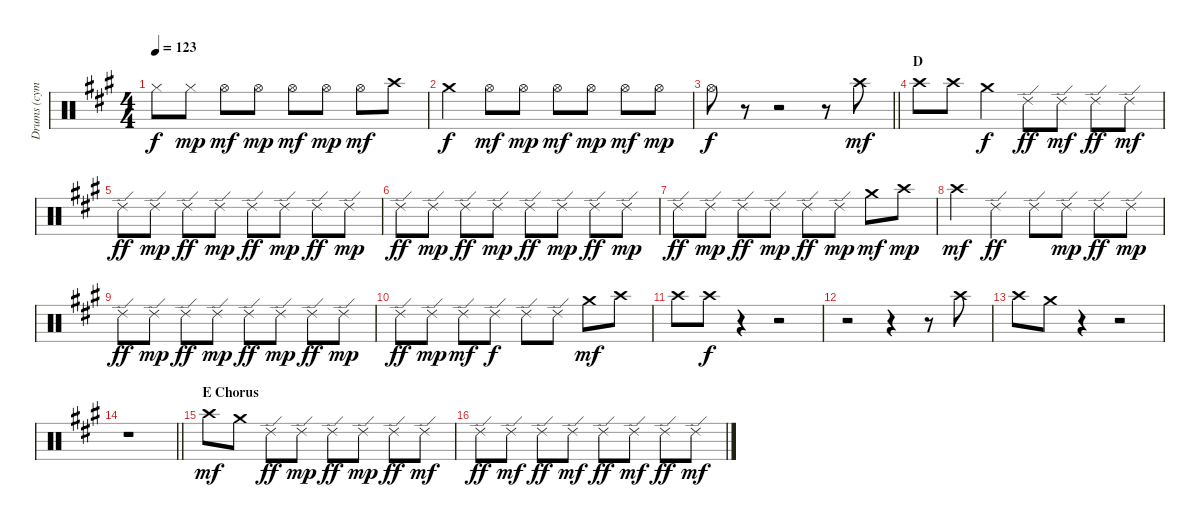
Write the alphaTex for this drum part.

\track ("Drums (cymbals)" "Drums (cym") {instrument percussion}
\staff {score}
\articulation defaults
\ts (4 4)
\tempo 123
\clef neutral
\ks a "Hi-Hat (closed)".8{dy f} "Hi-Hat (closed)".8{dy mp} "Hi-Hat (open)".8{dy mf} "Hi-Hat (open)".8{dy mp} "Hi-Hat (open)".8{dy mf} "Hi-Hat (open)".8{dy mp} "Hi-Hat (open)".8{dy mf} "Crash high (hit)".8
|
"Crash medium (hit)".4{dy f} "Hi-Hat (open)".8{dy mf} "Hi-Hat (open)".8{dy mp} "Hi-Hat (open)".8{dy mf} "Hi-Hat (open)".8{dy mp} "Hi-Hat (open)".8{dy mf} "Hi-Hat (open)".8{dy mp} |
\barLineRight lightlight "Hi-Hat (open)".8{dy f}
r.8 r.2 r.8 "Crash high (hit)".8{dy mf} |
\section ("" "D")
"Crash high (hit)".8 "Crash high (hit)".8 "Crash medium (hit)".4{dy f} "Ride (edge) 2".8{dy ff} "Ride (edge) 2".8{dy mf} "Ride (edge) 2".8{dy ff} "Ride (edge) 2".8{dy mf} |
"Ride (edge) 2".8{dy ff} "Ride (edge) 2".8{dy mp} "Ride (edge) 2".8{dy ff} "Ride (edge) 2".8{dy mp} "Ride (edge) 2".8{dy ff} "Ride (edge) 2".8{dy mp} "Ride (edge) 2".8{dy ff} "Ride (edge) 2".8{dy mp} |
"Ride (edge) 2".8{dy ff} "Ride (edge) 2".8{dy mp} "Ride (edge) 2".8{dy ff} "Ride (edge) 2".8{dy mp} "Ride (edge) 2".8{dy ff} "Ride (edge) 2".8{dy mp} "Ride (edge) 2".8{dy ff} "Ride (edge) 2".8{dy mp} |
"Ride (edge) 2".8{dy ff} "Ride (edge) 2".8{dy mp} "Ride (edge) 2".8{dy ff} "Ride (edge) 2".8{dy mp} "Ride (edge) 2".8{dy ff} "Ride (edge) 2".8{dy mp} "Crash medium (hit)".8{dy mf} "Crash high (hit)".8{dy mp} |
"Crash high (hit)".4{dy mf} "Ride (edge) 2".4{dy ff} "Ride (edge) 2".8 "Ride (edge) 2".8{dy mp} "Ride (edge) 2".8{dy ff} "Ride (edge) 2".8{dy mp} |
"Ride (edge) 2".8{dy ff} "Ride (edge) 2".8{dy mp} "Ride (edge) 2".8{dy ff} "Ride (edge) 2".8{dy mp} "Ride (edge) 2".8{dy ff} "Ride (edge) 2".8{dy mp} "Ride (edge) 2".8{dy ff} "Ride (edge) 2".8{dy mp} |
"Ride (edge) 2".8{dy ff} "Ride (edge) 2".8{dy mp} "Ride (edge) 2".8{dy mf} "Ride (edge) 2".8{dy f} "Ride (edge) 2".8 "Ride (edge) 2".8 "Crash medium (hit)".8{dy mf} "Crash high (hit)".8 |
"Crash high (hit)".8 "Crash high (hit)".8{dy f} r.4 r.2 |
r.2 r.4 r.8 "Crash high (hit)".8 |
"Crash high (hit)".8 "Crash medium (hit)".8 r.4 r.2 |
\barLineRight lightlight
r.1 |
\section ("" "E Chorus")
"Crash high (hit)".8{dy mf} "Crash medium (hit)".8 "Ride (edge) 2".8{dy ff} "Ride (edge) 2".8{dy mp} "Ride (edge) 2".8{dy ff} "Ride (edge) 2".8{dy mp} "Ride (edge) 2".8{dy ff} "Ride (edge) 2".8{dy mf} |
"Ride (edge) 2".8{dy ff} "Ride (edge) 2".8{dy mf} "Ride (edge) 2".8{dy ff} "Ride (edge) 2".8{dy mf} "Ride (edge) 2".8{dy ff} "Ride (edge) 2".8{dy mf} "Ride (edge) 2".8{dy ff} "Ride (edge) 2".8{dy mf}
